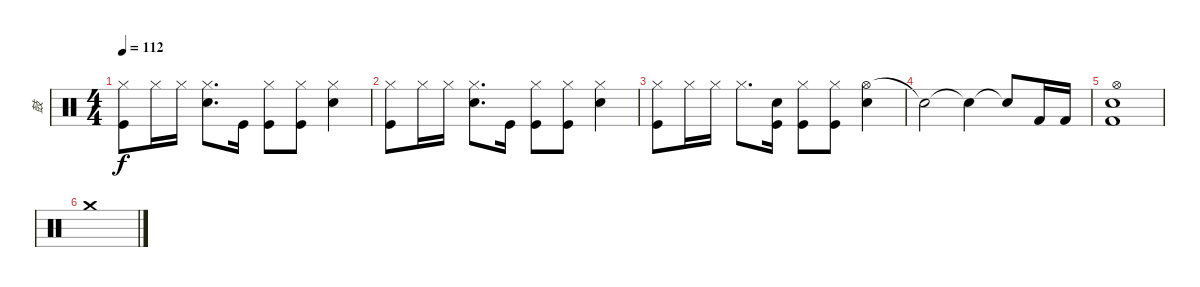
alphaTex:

\track ("鼓" "鼓") {instrument percussion}
\staff {score}
\articulation defaults
\ts (4 4)
\tempo 112
\clef neutral
\ks c
("Hi-Hat (closed)" "Kick (hit)").8{dy f} "Hi-Hat (closed)".16 "Hi-Hat (closed)".16 ("Hi-Hat (closed)" "Electric Snare (hit)").8{d} "Kick (hit)".16 ("Hi-Hat (closed)" "Kick (hit)").8 ("Hi-Hat (closed)" "Kick (hit)").8 ("Hi-Hat (closed)" "Electric Snare (hit)").4 |
("Hi-Hat (closed)" "Kick (hit)").8 "Hi-Hat (closed)".16 "Hi-Hat (closed)".16 ("Hi-Hat (closed)" "Electric Snare (hit)").8{d} "Kick (hit)".16 ("Hi-Hat (closed)" "Kick (hit)").8 ("Hi-Hat (closed)" "Kick (hit)").8 ("Hi-Hat (closed)" "Electric Snare (hit)").4 |
("Hi-Hat (closed)" "Kick (hit)").8 "Hi-Hat (closed)".16 "Hi-Hat (closed)".16 "Hi-Hat (closed)".8{d} ("Snare (hit) 2" "Kick (hit)").16 ("Hi-Hat (closed)" "Kick (hit)").8 ("Hi-Hat (closed)" "Kick (hit)").8 ("Hi-Hat (open)" "Electric Snare (hit)").4 |
"Snare (hit)"{t}.2 "Snare (hit)"{t}.4 "Snare (hit)"{t}.8 "Kick (hit) 2".16 "Kick (hit) 2".16 |
("Hi-Hat (open)" "Snare (hit) 2" "Kick (hit) 2").1 |
"Crash medium (hit)".1
